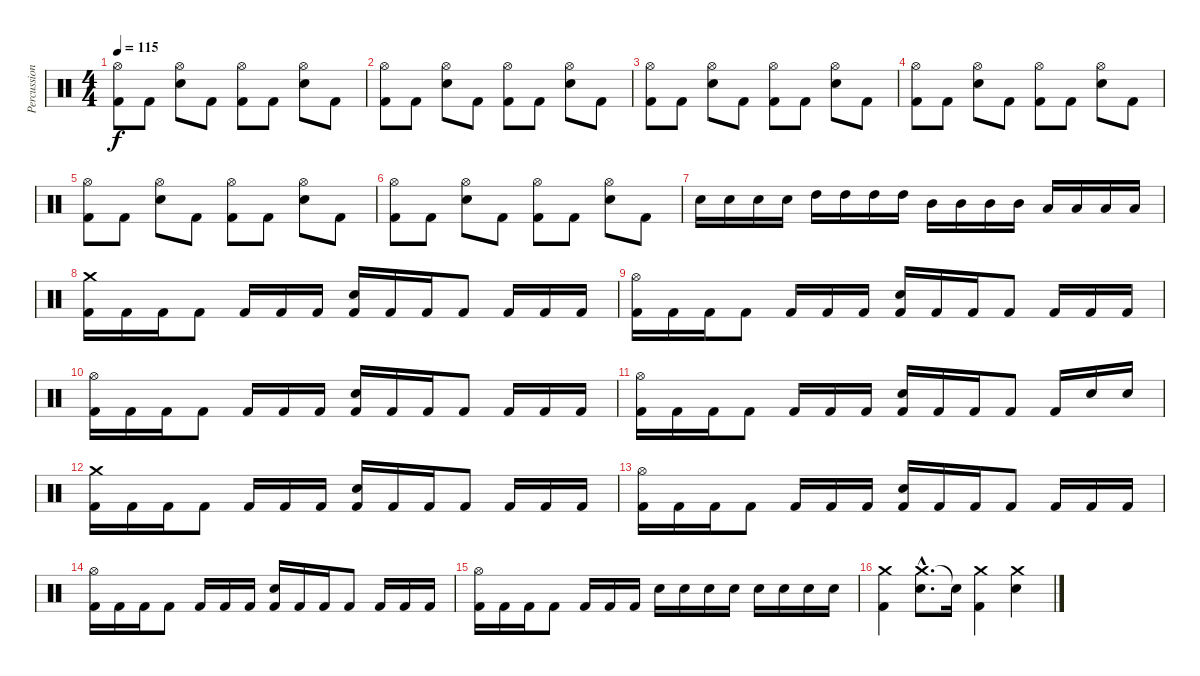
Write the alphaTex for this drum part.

\track ("Percussions" "Percussion") {instrument percussion}
\staff {score}
\articulation defaults
\ts (4 4)
\tempo 115
\clef neutral
\ks c
("Hi-Hat (open)" "Kick (hit) 2").8{dy f} "Kick (hit) 2".8 ("Hi-Hat (open)" "Electric Snare (hit)").8 "Kick (hit) 2".8 ("Hi-Hat (open)" "Kick (hit) 2").8 "Kick (hit) 2".8 ("Hi-Hat (open)" "Electric Snare (hit)").8 "Kick (hit) 2".8 |
("Hi-Hat (open)" "Kick (hit) 2").8 "Kick (hit) 2".8 ("Hi-Hat (open)" "Electric Snare (hit)").8 "Kick (hit) 2".8 ("Hi-Hat (open)" "Kick (hit) 2").8 "Kick (hit) 2".8 ("Hi-Hat (open)" "Electric Snare (hit)").8 "Kick (hit) 2".8 |
("Hi-Hat (open)" "Kick (hit) 2").8 "Kick (hit) 2".8 ("Hi-Hat (open)" "Electric Snare (hit)").8 "Kick (hit) 2".8 ("Hi-Hat (open)" "Kick (hit) 2").8 "Kick (hit) 2".8 ("Hi-Hat (open)" "Electric Snare (hit)").8 "Kick (hit) 2".8 |
("Hi-Hat (open)" "Kick (hit) 2").8 "Kick (hit) 2".8 ("Hi-Hat (open)" "Electric Snare (hit)").8 "Kick (hit) 2".8 ("Hi-Hat (open)" "Kick (hit) 2").8 "Kick (hit) 2".8 ("Hi-Hat (open)" "Electric Snare (hit)").8 "Kick (hit) 2".8 |
("Hi-Hat (open)" "Kick (hit) 2").8 "Kick (hit) 2".8 ("Hi-Hat (open)" "Electric Snare (hit)").8 "Kick (hit) 2".8 ("Hi-Hat (open)" "Kick (hit) 2").8 "Kick (hit) 2".8 ("Hi-Hat (open)" "Electric Snare (hit)").8 "Kick (hit) 2".8 |
("Hi-Hat (open)" "Kick (hit) 2").8 "Kick (hit) 2".8 ("Hi-Hat (open)" "Electric Snare (hit)").8 "Kick (hit) 2".8 ("Hi-Hat (open)" "Kick (hit) 2").8 "Kick (hit) 2".8 ("Hi-Hat (open)" "Electric Snare (hit)").8 "Kick (hit) 2".8 |
"Electric Snare (hit)".16 "Electric Snare (hit)".16 "Electric Snare (hit)".16 "Electric Snare (hit)".16 "High Tom (hit)".16 "High Tom (hit)".16 "High Tom (hit)".16 "High Tom (hit)".16 "Mid Tom (hit)".16 "Mid Tom (hit)".16 "Mid Tom (hit)".16 "Mid Tom (hit)".16 "Low Tom (hit)".16 "Low Tom (hit)".16 "Low Tom (hit)".16 "Low Tom (hit)".16 |
("Kick (hit) 2" "Crash medium (hit)").16 "Kick (hit) 2".16 "Kick (hit) 2".16 "Kick (hit) 2".8 "Kick (hit) 2".16 "Kick (hit) 2".16 "Kick (hit) 2".16 ("Kick (hit) 2" "Electric Snare (hit)").16 "Kick (hit) 2".16 "Kick (hit) 2".16 "Kick (hit) 2".8 "Kick (hit) 2".16 "Kick (hit) 2".16 "Kick (hit) 2".16 |
("Kick (hit) 2" "Hi-Hat (open)").16 "Kick (hit) 2".16 "Kick (hit) 2".16 "Kick (hit) 2".8 "Kick (hit) 2".16 "Kick (hit) 2".16 "Kick (hit) 2".16 ("Kick (hit) 2" "Electric Snare (hit)").16 "Kick (hit) 2".16 "Kick (hit) 2".16 "Kick (hit) 2".8 "Kick (hit) 2".16 "Kick (hit) 2".16 "Kick (hit) 2".16 |
("Kick (hit) 2" "Hi-Hat (open)").16 "Kick (hit) 2".16 "Kick (hit) 2".16 "Kick (hit) 2".8 "Kick (hit) 2".16 "Kick (hit) 2".16 "Kick (hit) 2".16 ("Kick (hit) 2" "Electric Snare (hit)").16 "Kick (hit) 2".16 "Kick (hit) 2".16 "Kick (hit) 2".8 "Kick (hit) 2".16 "Kick (hit) 2".16 "Kick (hit) 2".16 |
("Kick (hit) 2" "Hi-Hat (open)").16 "Kick (hit) 2".16 "Kick (hit) 2".16 "Kick (hit) 2".8 "Kick (hit) 2".16 "Kick (hit) 2".16 "Kick (hit) 2".16 ("Kick (hit) 2" "Electric Snare (hit)").16 "Kick (hit) 2".16 "Kick (hit) 2".16 "Kick (hit) 2".8 "Kick (hit) 2".16 "Electric Snare (hit)".16 "Electric Snare (hit)".16 |
("Kick (hit) 2" "Crash medium (hit)").16 "Kick (hit) 2".16 "Kick (hit) 2".16 "Kick (hit) 2".8 "Kick (hit) 2".16 "Kick (hit) 2".16 "Kick (hit) 2".16 ("Kick (hit) 2" "Electric Snare (hit)").16 "Kick (hit) 2".16 "Kick (hit) 2".16 "Kick (hit) 2".8 "Kick (hit) 2".16 "Kick (hit) 2".16 "Kick (hit) 2".16 |
("Kick (hit) 2" "Hi-Hat (open)").16 "Kick (hit) 2".16 "Kick (hit) 2".16 "Kick (hit) 2".8 "Kick (hit) 2".16 "Kick (hit) 2".16 "Kick (hit) 2".16 ("Kick (hit) 2" "Electric Snare (hit)").16 "Kick (hit) 2".16 "Kick (hit) 2".16 "Kick (hit) 2".8 "Kick (hit) 2".16 "Kick (hit) 2".16 "Kick (hit) 2".16 |
("Kick (hit) 2" "Hi-Hat (open)").16 "Kick (hit) 2".16 "Kick (hit) 2".16 "Kick (hit) 2".8 "Kick (hit) 2".16 "Kick (hit) 2".16 "Kick (hit) 2".16 ("Kick (hit) 2" "Electric Snare (hit)").16 "Kick (hit) 2".16 "Kick (hit) 2".16 "Kick (hit) 2".8 "Kick (hit) 2".16 "Kick (hit) 2".16 "Kick (hit) 2".16 |
("Kick (hit) 2" "Hi-Hat (open)").16 "Kick (hit) 2".16 "Kick (hit) 2".16 "Kick (hit) 2".8 "Kick (hit) 2".16 "Kick (hit) 2".16 "Kick (hit) 2".16 "Electric Snare (hit)".16 "Electric Snare (hit)".16 "Electric Snare (hit)".16 "Electric Snare (hit)".16 "Electric Snare (hit)".16 "Electric Snare (hit)".16 "Electric Snare (hit)".16 "Electric Snare (hit)".16 |
("Crash medium (hit)" "Kick (hit) 2").4 ("Crash medium (hit)"{hac} "Electric Snare (hit)"{hac}).8{d} "Electric Snare (hit)"{t}.16 ("Crash medium (hit)" "Kick (hit) 2").4 ("Crash medium (hit)" "Electric Snare (hit)").4
